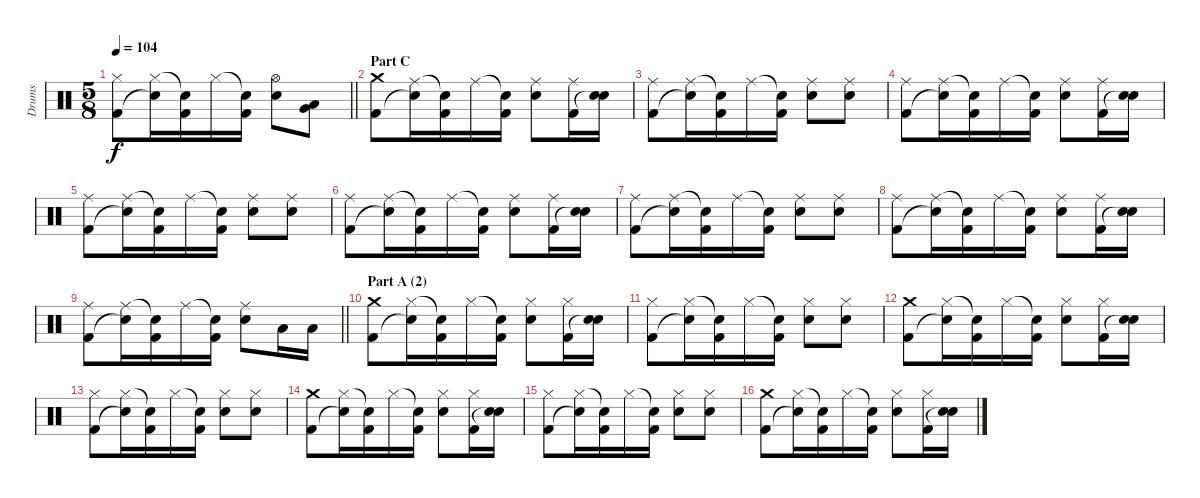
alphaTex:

\track ("Drums" "Drums") {instrument percussion}
\staff {score}
\articulation defaults
\ts (5 8)
\tempo 104
\clef neutral
\barLineRight lightlight
\ks c
("Hi-Hat (closed)" "Kick (hit) 2").8{dy f} ("Hi-Hat (closed)" "Snare (hit)"{t}).16 ("Snare (hit)"{t} "Kick (hit) 2").16 "Hi-Hat (closed)".16 ("Snare (hit)"{t} "Kick (hit) 2").16 ("Hi-Hat (open)" "Electric Snare (hit)").8 ("Low Tom (hit)" "Very Low Tom (hit)").8 |
\section ("" "Part C")
("Crash medium (hit)" "Kick (hit) 2").8 ("Ride (middle)" "Snare (hit)"{t}).16 ("Snare (hit)"{t} "Kick (hit) 2").16 "Ride (middle)".16 ("Snare (hit)"{t} "Kick (hit) 2").16 ("Ride (middle)" "Electric Snare (hit)").8 ("Ride (middle)" "Kick (hit) 2").16 ("Electric Snare (hit)" "Snare (hit)"{t}).16 |
("Ride (middle)" "Kick (hit) 2").8 ("Ride (middle)" "Snare (hit)"{t}).16 ("Snare (hit)"{t} "Kick (hit) 2").16 "Ride (middle)".16 ("Snare (hit)"{t} "Kick (hit) 2").16 ("Ride (middle)" "Electric Snare (hit)").8 ("Ride (middle)" "Electric Snare (hit)").8 |
("Ride (middle)" "Kick (hit) 2").8 ("Ride (middle)" "Snare (hit)"{t}).16 ("Snare (hit)"{t} "Kick (hit) 2").16 "Ride (middle)".16 ("Snare (hit)"{t} "Kick (hit) 2").16 ("Ride (middle)" "Electric Snare (hit)").8 ("Ride (middle)" "Kick (hit) 2").16 ("Electric Snare (hit)" "Snare (hit)"{t}).16 |
("Ride (middle)" "Kick (hit) 2").8 ("Ride (middle)" "Snare (hit)"{t}).16 ("Snare (hit)"{t} "Kick (hit) 2").16 "Ride (middle)".16 ("Snare (hit)"{t} "Kick (hit) 2").16 ("Ride (middle)" "Electric Snare (hit)").8 ("Ride (middle)" "Electric Snare (hit)").8 |
("Ride (middle)" "Kick (hit) 2").8 ("Ride (middle)" "Snare (hit)"{t}).16 ("Snare (hit)"{t} "Kick (hit) 2").16 "Ride (middle)".16 ("Snare (hit)"{t} "Kick (hit) 2").16 ("Ride (middle)" "Electric Snare (hit)").8 ("Ride (middle)" "Kick (hit) 2").16 ("Electric Snare (hit)" "Snare (hit)"{t}).16 |
("Ride (middle)" "Kick (hit) 2").8 ("Ride (middle)" "Snare (hit)"{t}).16 ("Snare (hit)"{t} "Kick (hit) 2").16 "Ride (middle)".16 ("Snare (hit)"{t} "Kick (hit) 2").16 ("Ride (middle)" "Electric Snare (hit)").8 ("Ride (middle)" "Electric Snare (hit)").8 |
("Ride (middle)" "Kick (hit) 2").8 ("Ride (middle)" "Snare (hit)"{t}).16 ("Snare (hit)"{t} "Kick (hit) 2").16 "Ride (middle)".16 ("Snare (hit)"{t} "Kick (hit) 2").16 ("Ride (middle)" "Electric Snare (hit)").8 ("Ride (middle)" "Kick (hit) 2").16 ("Electric Snare (hit)" "Snare (hit)"{t}).16 |
\barLineRight lightlight
("Ride (middle)" "Kick (hit) 2").8 ("Ride (middle)" "Snare (hit)"{t}).16 ("Snare (hit)"{t} "Kick (hit) 2").16 "Ride (middle)".16 ("Snare (hit)"{t} "Kick (hit) 2").16 ("Ride (middle)" "Electric Snare (hit)").8 "Low Tom (hit)".16 "Low Tom (hit)".16 |
\section ("" "Part A (2)")
("Crash medium (hit)" "Kick (hit) 2").8 ("Hi-Hat (closed)" "Snare (hit)"{t}).16 ("Snare (hit)"{t} "Kick (hit) 2").16 "Hi-Hat (closed)".16 ("Snare (hit)"{t} "Kick (hit) 2").16 ("Hi-Hat (closed)" "Electric Snare (hit)").8 ("Hi-Hat (closed)" "Kick (hit) 2").16 ("Electric Snare (hit)" "Snare (hit)"{t}).16 |
("Hi-Hat (closed)" "Kick (hit) 2").8 ("Hi-Hat (closed)" "Snare (hit)"{t}).16 ("Snare (hit)"{t} "Kick (hit) 2").16 "Hi-Hat (closed)".16 ("Snare (hit)"{t} "Kick (hit) 2").16 ("Hi-Hat (closed)" "Electric Snare (hit)").8 ("Hi-Hat (closed)" "Electric Snare (hit)").8 |
("Crash medium (hit)" "Kick (hit) 2").8 ("Hi-Hat (closed)" "Snare (hit)"{t}).16 ("Snare (hit)"{t} "Kick (hit) 2").16 "Hi-Hat (closed)".16 ("Snare (hit)"{t} "Kick (hit) 2").16 ("Hi-Hat (closed)" "Electric Snare (hit)").8 ("Hi-Hat (closed)" "Kick (hit) 2").16 ("Electric Snare (hit)" "Snare (hit)"{t}).16 |
("Hi-Hat (closed)" "Kick (hit) 2").8 ("Hi-Hat (closed)" "Snare (hit)"{t}).16 ("Snare (hit)"{t} "Kick (hit) 2").16 "Hi-Hat (closed)".16 ("Snare (hit)"{t} "Kick (hit) 2").16 ("Hi-Hat (closed)" "Electric Snare (hit)").8 ("Hi-Hat (closed)" "Electric Snare (hit)").8 |
("Crash medium (hit)" "Kick (hit) 2").8 ("Hi-Hat (closed)" "Snare (hit)"{t}).16 ("Snare (hit)"{t} "Kick (hit) 2").16 "Hi-Hat (closed)".16 ("Snare (hit)"{t} "Kick (hit) 2").16 ("Hi-Hat (closed)" "Electric Snare (hit)").8 ("Hi-Hat (closed)" "Kick (hit) 2").16 ("Electric Snare (hit)" "Snare (hit)"{t}).16 |
("Hi-Hat (closed)" "Kick (hit) 2").8 ("Hi-Hat (closed)" "Snare (hit)"{t}).16 ("Snare (hit)"{t} "Kick (hit) 2").16 "Hi-Hat (closed)".16 ("Snare (hit)"{t} "Kick (hit) 2").16 ("Hi-Hat (closed)" "Electric Snare (hit)").8 ("Hi-Hat (closed)" "Electric Snare (hit)").8 |
("Crash medium (hit)" "Kick (hit) 2").8 ("Hi-Hat (closed)" "Snare (hit)"{t}).16 ("Snare (hit)"{t} "Kick (hit) 2").16 "Hi-Hat (closed)".16 ("Snare (hit)"{t} "Kick (hit) 2").16 ("Hi-Hat (closed)" "Electric Snare (hit)").8 ("Hi-Hat (closed)" "Kick (hit) 2").16 ("Electric Snare (hit)" "Snare (hit)"{t}).16
